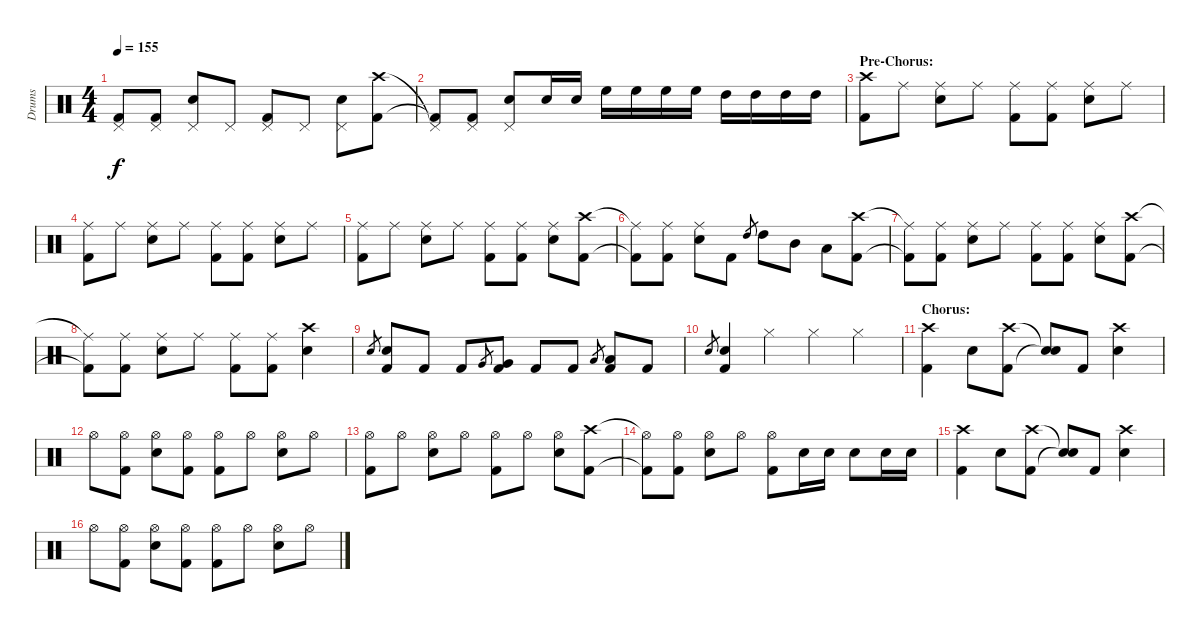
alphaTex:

\track ("Drums" "Drums") {instrument percussion}
\staff {score}
\articulation defaults
\ts (4 4)
\tempo 155
\clef neutral
\ks c
("Pedal Hi-Hat (hit)"{t} "Kick (hit) 2"{t}).8{dy f} ("Pedal Hi-Hat (hit)" "Kick (hit) 2").8 ("Pedal Hi-Hat (hit)" "Electric Snare (hit)").8 "Pedal Hi-Hat (hit)".8 ("Pedal Hi-Hat (hit)" "Kick (hit) 2").8 "Pedal Hi-Hat (hit)".8 ("Pedal Hi-Hat (hit)" "Electric Snare (hit)").8 ("Crash high (hit)" "Kick (hit) 2").8 |
("Pedal Hi-Hat (hit)"{t} "Kick (hit) 2"{t}).8 ("Pedal Hi-Hat (hit)" "Kick (hit) 2").8 ("Pedal Hi-Hat (hit)" "Electric Snare (hit)").8 "Electric Snare (hit)".16 "Electric Snare (hit)".16 "High Floor Tom (hit)".16 "High Floor Tom (hit)".16 "High Floor Tom (hit)".16 "High Floor Tom (hit)".16 "High Tom (hit)".16 "High Tom (hit)".16 "High Tom (hit)".16 "High Tom (hit)".16 |
\section ("" "Pre-Chorus:")
("Crash high (hit)" "Kick (hit) 2").8 "Ride (middle)".8 ("Ride (middle)" "Electric Snare (hit)").8 "Ride (middle)".8 ("Ride (middle)" "Kick (hit) 2").8 ("Ride (middle)" "Kick (hit) 2").8 ("Ride (middle)" "Electric Snare (hit)").8 "Ride (middle)".8 |
("Ride (middle)" "Kick (hit) 2").8 "Ride (middle)".8 ("Ride (middle)" "Electric Snare (hit)").8 "Ride (middle)".8 ("Ride (middle)" "Kick (hit) 2").8 ("Ride (middle)" "Kick (hit) 2").8 ("Ride (middle)" "Electric Snare (hit)").8 "Ride (middle)".8 |
("Ride (middle)" "Kick (hit) 2").8 "Ride (middle)".8 ("Ride (middle)" "Electric Snare (hit)").8 "Ride (middle)".8 ("Ride (middle)" "Kick (hit) 2").8 ("Ride (middle)" "Kick (hit) 2").8 ("Ride (middle)" "Electric Snare (hit)").8 ("Crash high (hit)" "Kick (hit) 2").8 |
("Ride (middle)"{t} "Kick (hit) 2"{t}).8 ("Ride (middle)" "Kick (hit) 2").8 ("Ride (middle)" "Electric Snare (hit)").8 "Kick (hit) 2".8 "High Tom (hit)".8{gr} "High Tom (hit)".8 "Mid Tom (hit)".8 "Low Tom (hit)".8 ("Crash high (hit)" "Kick (hit) 2").8 |
("Ride (middle)"{t} "Kick (hit) 2"{t}).8 ("Ride (middle)" "Kick (hit) 2").8 ("Ride (middle)" "Electric Snare (hit)").8 "Ride (middle)".8 ("Ride (middle)" "Kick (hit) 2").8 ("Ride (middle)" "Kick (hit) 2").8 ("Ride (middle)" "Electric Snare (hit)").8 ("Crash high (hit)" "Kick (hit) 2").8 |
("Ride (middle)"{t} "Kick (hit) 2"{t}).8 ("Ride (middle)" "Kick (hit) 2").8 ("Ride (middle)" "Electric Snare (hit)").8 "Ride (middle)".8 ("Ride (middle)" "Kick (hit) 2").8 ("Ride (middle)" "Kick (hit) 2").8 ("Crash high (hit)" "Electric Snare (hit)").4 |
"Electric Snare (hit)".8{gr} ("Electric Snare (hit)" "Kick (hit) 2").8 "Kick (hit) 2".8 "Kick (hit) 2".8 "Very Low Tom (hit)".8{gr} ("Very Low Tom (hit)" "Kick (hit) 2").8 "Kick (hit) 2".8 "Kick (hit) 2".8 "Low Floor Tom (hit)".8{gr} ("Low Floor Tom (hit)" "Kick (hit) 2").8 "Kick (hit) 2".8 |
"Electric Snare (hit)".8{gr} ("Electric Snare (hit)" "Kick (hit) 2").4 "Hi-Hat (closed)".4 "Hi-Hat (closed)".4 "Hi-Hat (closed)".4 |
\section ("" "Chorus:")
("Crash high (hit)" "Kick (hit) 2").4 "Electric Snare (hit)".8 ("Crash high (hit)" "Kick (hit) 2").8 ("Snare (hit)"{t} "Snare (hit)"{t}).8 "Kick (hit) 2".8 ("Crash high (hit)" "Electric Snare (hit)").4 |
"Hi-Hat (open)".8 ("Hi-Hat (open)" "Kick (hit) 2").8 ("Hi-Hat (open)" "Electric Snare (hit)").8 ("Hi-Hat (open)" "Kick (hit) 2").8 ("Hi-Hat (open)" "Kick (hit) 2").8 "Hi-Hat (open)".8 ("Hi-Hat (open)" "Electric Snare (hit)").8 "Hi-Hat (open)".8 |
("Hi-Hat (open)" "Kick (hit) 2").8 "Hi-Hat (open)".8 ("Hi-Hat (open)" "Electric Snare (hit)").8 "Hi-Hat (open)".8 ("Hi-Hat (open)" "Kick (hit) 2").8 "Hi-Hat (open)".8 ("Hi-Hat (open)" "Electric Snare (hit)").8 ("Crash high (hit)" "Kick (hit) 2").8 |
("Hi-Hat (open)"{t} "Kick (hit) 2"{t}).8 ("Hi-Hat (open)" "Kick (hit) 2").8 ("Hi-Hat (open)" "Electric Snare (hit)").8 "Hi-Hat (open)".8 ("Hi-Hat (open)" "Kick (hit) 2").8 "Electric Snare (hit)".16 "Electric Snare (hit)".16 "Electric Snare (hit)".8 "Electric Snare (hit)".16 "Electric Snare (hit)".16 |
("Crash high (hit)" "Kick (hit) 2").4 "Electric Snare (hit)".8 ("Crash high (hit)" "Kick (hit) 2").8 ("Snare (hit)"{t} "Snare (hit)"{t}).8 "Kick (hit) 2".8 ("Crash high (hit)" "Electric Snare (hit)").4 |
"Hi-Hat (open)".8 ("Hi-Hat (open)" "Kick (hit) 2").8 ("Hi-Hat (open)" "Electric Snare (hit)").8 ("Hi-Hat (open)" "Kick (hit) 2").8 ("Hi-Hat (open)" "Kick (hit) 2").8 "Hi-Hat (open)".8 ("Hi-Hat (open)" "Electric Snare (hit)").8 "Hi-Hat (open)".8
